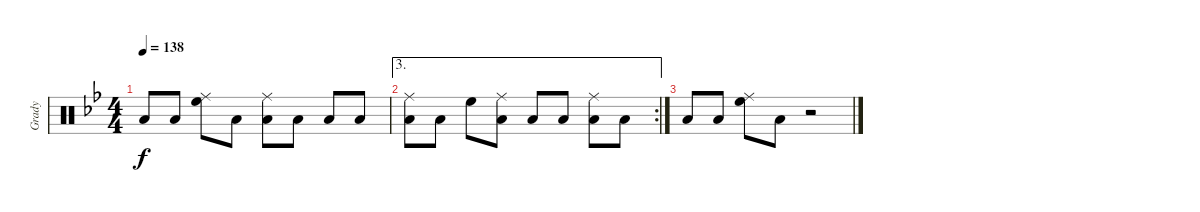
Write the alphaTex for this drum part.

\track ("Grady" "Grady") {instrument percussion}
\staff {score}
\articulation defaults
\ts (4 4)
\tempo 138
\clef neutral
\ks bb "Low Tom (hit)".8{dy f} "Low Tom (hit)".8
("High Floor Tom (hit)" "Ride (middle)").8 "Low Tom (hit)".8 ("Ride (middle)" "Low Tom (hit)").8 "Low Tom (hit)".8 "Low Tom (hit)".8 "Low Tom (hit)".8 |
\ae 3
\rc 2
("Ride (middle)" "Low Tom (hit)").8 "Low Tom (hit)".8 "High Floor Tom (hit)".8 ("Ride (middle)" "Low Tom (hit)").8 "Low Tom (hit)".8 "Low Tom (hit)".8 ("Ride (middle)" "Low Tom (hit)").8 "Low Tom (hit)".8 |
"Low Tom (hit)".8 "Low Tom (hit)".8 ("High Floor Tom (hit)" "Ride (middle)").8 "Low Tom (hit)".8 r.2
